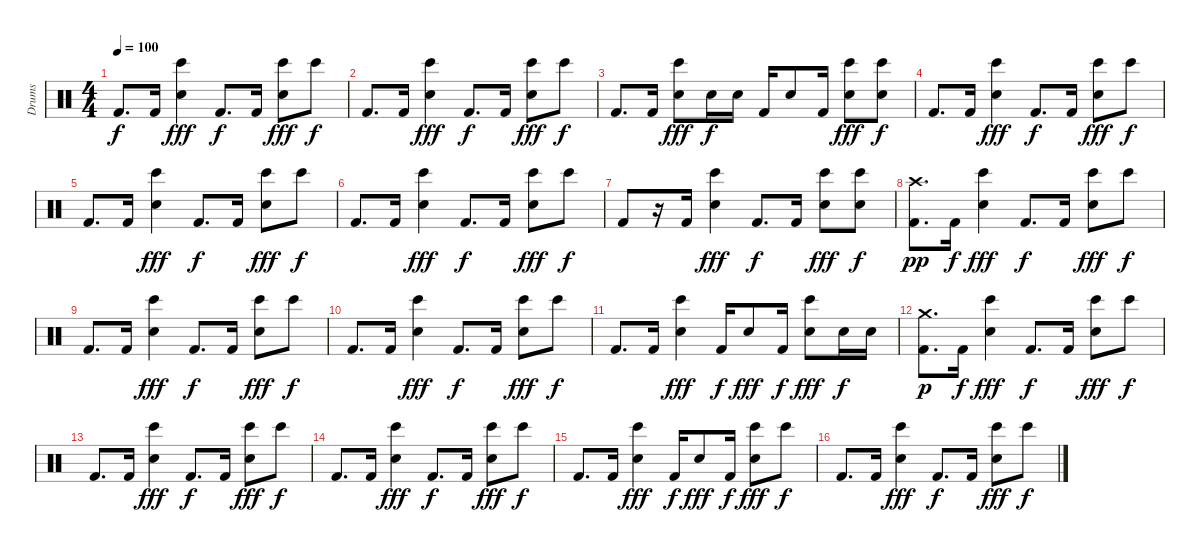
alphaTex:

\track ("Drums" "Drums") {instrument percussion}
\staff {score}
\articulation defaults
\ts (4 4)
\tempo 100
\clef neutral
\ks c "Kick (hit) 2".8{d dy f} "Kick (hit) 2".16
("Snare (hit) 2" "Bongo High (hit)").4{dy fff} "Kick (hit) 2".8{d dy f} "Kick (hit) 2".16 ("Snare (hit) 2" "Bongo High (hit)").8{dy fff} "Bongo High (hit)".8{dy f} |
"Kick (hit) 2".8{d} "Kick (hit) 2".16 ("Snare (hit) 2" "Bongo High (hit)").4{dy fff} "Kick (hit) 2".8{d dy f} "Kick (hit) 2".16 ("Snare (hit) 2" "Bongo High (hit)").8{dy fff} "Bongo High (hit)".8{dy f} |
"Kick (hit) 2".8{d} "Kick (hit) 2".16 ("Snare (hit) 2" "Bongo High (hit)").8{dy fff} "Snare (hit) 2".16{dy f} "Snare (hit) 2".16 "Kick (hit) 2".16 "Snare (hit) 2".8 "Kick (hit) 2".16 ("Snare (hit) 2" "Bongo High (hit)").8{dy fff} ("Snare (hit) 2" "Bongo High (hit)").8{dy f} |
"Kick (hit) 2".8{d} "Kick (hit) 2".16 ("Snare (hit) 2" "Bongo High (hit)").4{dy fff} "Kick (hit) 2".8{d dy f} "Kick (hit) 2".16 ("Snare (hit) 2" "Bongo High (hit)").8{dy fff} "Bongo High (hit)".8{dy f} |
"Kick (hit) 2".8{d} "Kick (hit) 2".16 ("Snare (hit) 2" "Bongo High (hit)").4{dy fff} "Kick (hit) 2".8{d dy f} "Kick (hit) 2".16 ("Snare (hit) 2" "Bongo High (hit)").8{dy fff} "Bongo High (hit)".8{dy f} |
"Kick (hit) 2".8{d} "Kick (hit) 2".16 ("Snare (hit) 2" "Bongo High (hit)").4{dy fff} "Kick (hit) 2".8{d dy f} "Kick (hit) 2".16 ("Snare (hit) 2" "Bongo High (hit)").8{dy fff} "Bongo High (hit)".8{dy f} |
"Kick (hit) 2".8 r.16 "Kick (hit) 2".16 ("Snare (hit) 2" "Bongo High (hit)").4{dy fff} "Kick (hit) 2".8{d dy f} "Kick (hit) 2".16 ("Snare (hit) 2" "Bongo High (hit)").8{dy fff} ("Snare (hit) 2" "Bongo High (hit)").8{dy f} |
("Kick (hit) 2" "Crash high (hit)").8{d dy pp} "Kick (hit) 2".16{dy f} ("Snare (hit) 2" "Bongo High (hit)").4{dy fff} "Kick (hit) 2".8{d dy f} "Kick (hit) 2".16 ("Snare (hit) 2" "Bongo High (hit)").8{dy fff} "Bongo High (hit)".8{dy f} |
"Kick (hit) 2".8{d} "Kick (hit) 2".16 ("Snare (hit) 2" "Bongo High (hit)").4{dy fff} "Kick (hit) 2".8{d dy f} "Kick (hit) 2".16 ("Snare (hit) 2" "Bongo High (hit)").8{dy fff} "Bongo High (hit)".8{dy f} |
"Kick (hit) 2".8{d} "Kick (hit) 2".16 ("Snare (hit) 2" "Bongo High (hit)").4{dy fff} "Kick (hit) 2".8{d dy f} "Kick (hit) 2".16 ("Snare (hit) 2" "Bongo High (hit)").8{dy fff} "Bongo High (hit)".8{dy f} |
"Kick (hit) 2".8{d} "Kick (hit) 2".16 ("Snare (hit) 2" "Bongo High (hit)").4{dy fff} "Kick (hit) 2".16{dy f} "Snare (hit) 2".8{dy fff} "Kick (hit) 2".16{dy f} ("Snare (hit) 2" "Bongo High (hit)").8{dy fff} "Snare (hit) 2".16{dy f} "Snare (hit) 2".16 |
("Kick (hit) 2" "Crash medium (hit)").8{d dy p} "Kick (hit) 2".16{dy f} ("Snare (hit) 2" "Bongo High (hit)").4{dy fff} "Kick (hit) 2".8{d dy f} "Kick (hit) 2".16 ("Snare (hit) 2" "Bongo High (hit)").8{dy fff} "Bongo High (hit)".8{dy f} |
"Kick (hit) 2".8{d} "Kick (hit) 2".16 ("Snare (hit) 2" "Bongo High (hit)").4{dy fff} "Kick (hit) 2".8{d dy f} "Kick (hit) 2".16 ("Snare (hit) 2" "Bongo High (hit)").8{dy fff} "Bongo High (hit)".8{dy f} |
"Kick (hit) 2".8{d} "Kick (hit) 2".16 ("Snare (hit) 2" "Bongo High (hit)").4{dy fff} "Kick (hit) 2".8{d dy f} "Kick (hit) 2".16 ("Snare (hit) 2" "Bongo High (hit)").8{dy fff} "Bongo High (hit)".8{dy f} |
"Kick (hit) 2".8{d} "Kick (hit) 2".16 ("Snare (hit) 2" "Bongo High (hit)").4{dy fff} "Kick (hit) 2".16{dy f} "Snare (hit) 2".8{dy fff} "Kick (hit) 2".16{dy f} ("Snare (hit) 2" "Bongo High (hit)").8{dy fff} "Bongo High (hit)".8{dy f} |
"Kick (hit) 2".8{d} "Kick (hit) 2".16 ("Snare (hit) 2" "Bongo High (hit)").4{dy fff} "Kick (hit) 2".8{d dy f} "Kick (hit) 2".16 ("Snare (hit) 2" "Bongo High (hit)").8{dy fff} "Bongo High (hit)".8{dy f}
